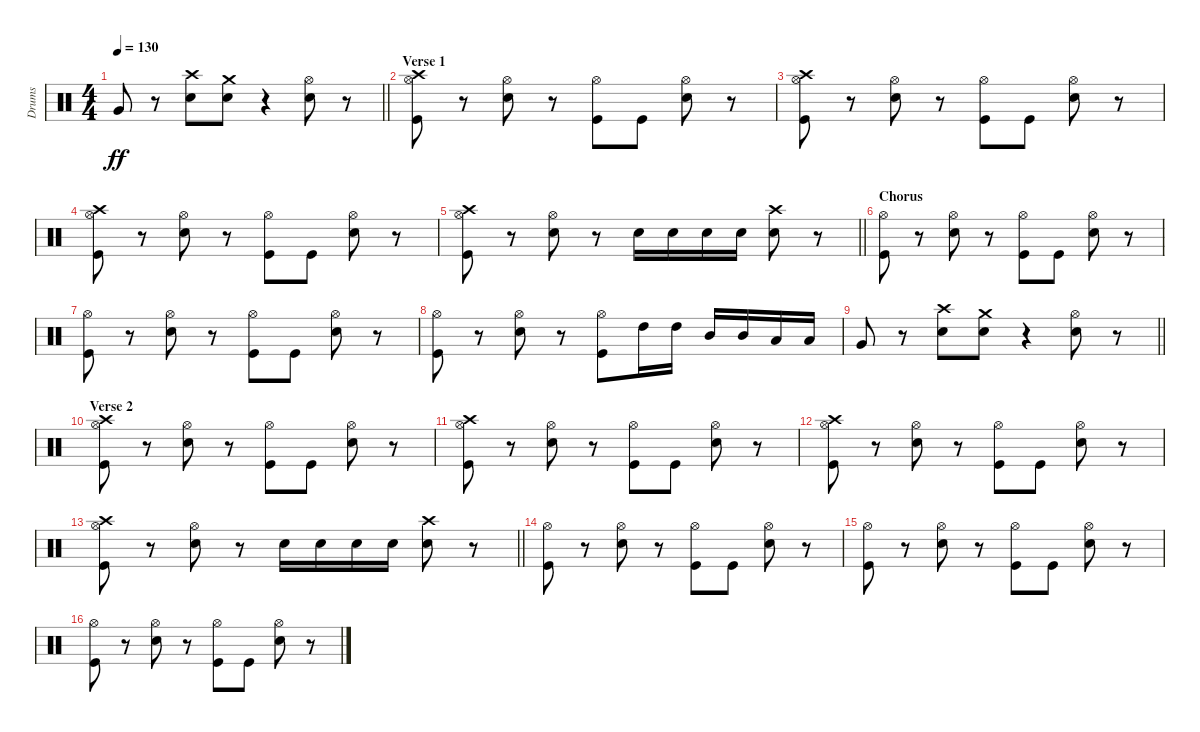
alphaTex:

\track ("Drums" "Drums") {instrument percussion}
\staff {score}
\articulation defaults
\ts (4 4)
\tempo 130
\clef neutral
\barLineRight lightlight
\ks c "Very Low Tom (hit)".8{dy ff}
r.8 ("Crash high (hit)" "Electric Snare (hit)").8 ("Crash medium (hit)" "Electric Snare (hit)").8 r.4 ("Hi-Hat (open)" "Electric Snare (hit)").8 r.8 |
\section ("" "Verse 1")
("Crash high (hit)" "Hi-Hat (open)" "Kick (hit)").8 r.8 ("Hi-Hat (open)" "Electric Snare (hit)").8 r.8 ("Hi-Hat (open)" "Kick (hit)").8 "Kick (hit)".8 ("Hi-Hat (open)" "Electric Snare (hit)").8 r.8 |
("Crash high (hit)" "Hi-Hat (open)" "Kick (hit)").8 r.8 ("Hi-Hat (open)" "Electric Snare (hit)").8 r.8 ("Hi-Hat (open)" "Kick (hit)").8 "Kick (hit)".8 ("Hi-Hat (open)" "Electric Snare (hit)").8 r.8 |
("Crash high (hit)" "Hi-Hat (open)" "Kick (hit)").8 r.8 ("Hi-Hat (open)" "Electric Snare (hit)").8 r.8 ("Hi-Hat (open)" "Kick (hit)").8 "Kick (hit)".8 ("Hi-Hat (open)" "Electric Snare (hit)").8 r.8 |
\barLineRight lightlight
("Crash high (hit)" "Hi-Hat (open)" "Kick (hit)").8 r.8 ("Hi-Hat (open)" "Electric Snare (hit)").8 r.8 "Electric Snare (hit)".16 "Electric Snare (hit)".16 "Electric Snare (hit)".16 "Electric Snare (hit)".16 ("Crash high (hit)" "Electric Snare (hit)").8 r.8 |
\section ("" "Chorus")
("Hi-Hat (open)" "Kick (hit)").8 r.8 ("Hi-Hat (open)" "Electric Snare (hit)").8 r.8 ("Hi-Hat (open)" "Kick (hit)").8 "Kick (hit)".8 ("Hi-Hat (open)" "Electric Snare (hit)").8 r.8 |
("Hi-Hat (open)" "Kick (hit)").8 r.8 ("Hi-Hat (open)" "Electric Snare (hit)").8 r.8 ("Hi-Hat (open)" "Kick (hit)").8 "Kick (hit)".8 ("Hi-Hat (open)" "Electric Snare (hit)").8 r.8 |
("Hi-Hat (open)" "Kick (hit)").8 r.8 ("Hi-Hat (open)" "Electric Snare (hit)").8 r.8 ("Hi-Hat (open)" "Kick (hit)").8 "High Tom (hit)".16 "High Tom (hit)".16 "Mid Tom (hit)".16 "Mid Tom (hit)".16 "Low Tom (hit)".16 "Low Tom (hit)".16 |
\barLineRight lightlight "Very Low Tom (hit)".8
r.8 ("Crash high (hit)" "Electric Snare (hit)").8 ("Crash medium (hit)" "Electric Snare (hit)").8 r.4 ("Hi-Hat (open)" "Electric Snare (hit)").8 r.8 |
\section ("" "Verse 2")
("Crash high (hit)" "Hi-Hat (open)" "Kick (hit)").8 r.8 ("Hi-Hat (open)" "Electric Snare (hit)").8 r.8 ("Hi-Hat (open)" "Kick (hit)").8 "Kick (hit)".8 ("Hi-Hat (open)" "Electric Snare (hit)").8 r.8 |
("Crash high (hit)" "Hi-Hat (open)" "Kick (hit)").8 r.8 ("Hi-Hat (open)" "Electric Snare (hit)").8 r.8 ("Hi-Hat (open)" "Kick (hit)").8 "Kick (hit)".8 ("Hi-Hat (open)" "Electric Snare (hit)").8 r.8 |
("Crash high (hit)" "Hi-Hat (open)" "Kick (hit)").8 r.8 ("Hi-Hat (open)" "Electric Snare (hit)").8 r.8 ("Hi-Hat (open)" "Kick (hit)").8 "Kick (hit)".8 ("Hi-Hat (open)" "Electric Snare (hit)").8 r.8 |
\barLineRight lightlight
("Crash high (hit)" "Hi-Hat (open)" "Kick (hit)").8 r.8 ("Hi-Hat (open)" "Electric Snare (hit)").8 r.8 "Electric Snare (hit)".16 "Electric Snare (hit)".16 "Electric Snare (hit)".16 "Electric Snare (hit)".16 ("Crash high (hit)" "Electric Snare (hit)").8 r.8 |
\section ("" "")
("Hi-Hat (open)" "Kick (hit)").8 r.8 ("Hi-Hat (open)" "Electric Snare (hit)").8 r.8 ("Hi-Hat (open)" "Kick (hit)").8 "Kick (hit)".8 ("Hi-Hat (open)" "Electric Snare (hit)").8 r.8 |
("Hi-Hat (open)" "Kick (hit)").8 r.8 ("Hi-Hat (open)" "Electric Snare (hit)").8 r.8 ("Hi-Hat (open)" "Kick (hit)").8 "Kick (hit)".8 ("Hi-Hat (open)" "Electric Snare (hit)").8 r.8 |
("Hi-Hat (open)" "Kick (hit)").8 r.8 ("Hi-Hat (open)" "Electric Snare (hit)").8 r.8 ("Hi-Hat (open)" "Kick (hit)").8 "Kick (hit)".8 ("Hi-Hat (open)" "Electric Snare (hit)").8 r.8
